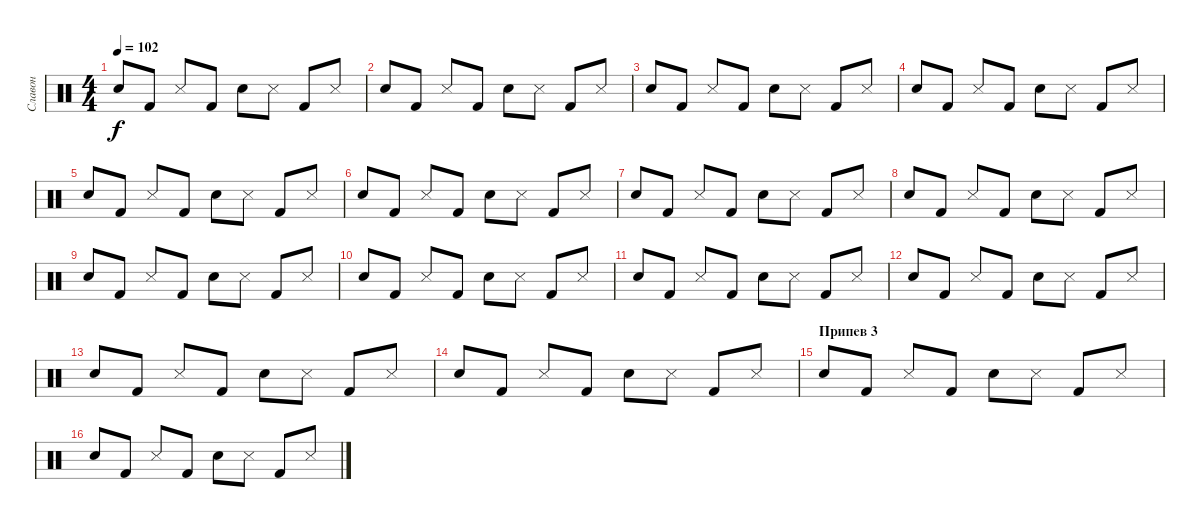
\track ("Славон" "Славон") {instrument percussion}
\staff {score}
\articulation defaults
\ts (4 4)
\tempo 102
\clef neutral
\ks c "Snare (hit) 2".8{dy f} "Kick (hit) 2".8 "Snare (side stick) 3".8 "Kick (hit) 2".8 "Snare (hit) 2".8 "Snare (side stick) 3".8 "Kick (hit) 2".8 "Snare (side stick) 3".8
|
"Snare (hit) 2".8 "Kick (hit) 2".8 "Snare (side stick) 3".8 "Kick (hit) 2".8 "Snare (hit) 2".8 "Snare (side stick) 3".8 "Kick (hit) 2".8 "Snare (side stick) 3".8 |
"Snare (hit) 2".8 "Kick (hit) 2".8 "Snare (side stick) 3".8 "Kick (hit) 2".8 "Snare (hit) 2".8 "Snare (side stick) 3".8 "Kick (hit) 2".8 "Snare (side stick) 3".8 |
"Snare (hit) 2".8 "Kick (hit) 2".8 "Snare (side stick) 3".8 "Kick (hit) 2".8 "Snare (hit) 2".8 "Snare (side stick) 3".8 "Kick (hit) 2".8 "Snare (side stick) 3".8 |
"Snare (hit) 2".8 "Kick (hit) 2".8 "Snare (side stick) 3".8 "Kick (hit) 2".8 "Snare (hit) 2".8 "Snare (side stick) 3".8 "Kick (hit) 2".8 "Snare (side stick) 3".8 |
"Snare (hit) 2".8 "Kick (hit) 2".8 "Snare (side stick) 3".8 "Kick (hit) 2".8 "Snare (hit) 2".8 "Snare (side stick) 3".8 "Kick (hit) 2".8 "Snare (side stick) 3".8 |
"Snare (hit) 2".8 "Kick (hit) 2".8 "Snare (side stick) 3".8 "Kick (hit) 2".8 "Snare (hit) 2".8 "Snare (side stick) 3".8 "Kick (hit) 2".8 "Snare (side stick) 3".8 |
"Snare (hit) 2".8 "Kick (hit) 2".8 "Snare (side stick) 3".8 "Kick (hit) 2".8 "Snare (hit) 2".8 "Snare (side stick) 3".8 "Kick (hit) 2".8 "Snare (side stick) 3".8 |
"Snare (hit) 2".8 "Kick (hit) 2".8 "Snare (side stick) 3".8 "Kick (hit) 2".8 "Snare (hit) 2".8 "Snare (side stick) 3".8 "Kick (hit) 2".8 "Snare (side stick) 3".8 |
"Snare (hit) 2".8 "Kick (hit) 2".8 "Snare (side stick) 3".8 "Kick (hit) 2".8 "Snare (hit) 2".8 "Snare (side stick) 3".8 "Kick (hit) 2".8 "Snare (side stick) 3".8 |
"Snare (hit) 2".8 "Kick (hit) 2".8 "Snare (side stick) 3".8 "Kick (hit) 2".8 "Snare (hit) 2".8 "Snare (side stick) 3".8 "Kick (hit) 2".8 "Snare (side stick) 3".8 |
"Snare (hit) 2".8 "Kick (hit) 2".8 "Snare (side stick) 3".8 "Kick (hit) 2".8 "Snare (hit) 2".8 "Snare (side stick) 3".8 "Kick (hit) 2".8 "Snare (side stick) 3".8 |
"Snare (hit) 2".8 "Kick (hit) 2".8 "Snare (side stick) 3".8 "Kick (hit) 2".8 "Snare (hit) 2".8 "Snare (side stick) 3".8 "Kick (hit) 2".8 "Snare (side stick) 3".8 |
"Snare (hit) 2".8 "Kick (hit) 2".8 "Snare (side stick) 3".8 "Kick (hit) 2".8 "Snare (hit) 2".8 "Snare (side stick) 3".8 "Kick (hit) 2".8 "Snare (side stick) 3".8 |
\section ("" "Припев 3")
"Snare (hit) 2".8 "Kick (hit) 2".8 "Snare (side stick) 3".8 "Kick (hit) 2".8 "Snare (hit) 2".8 "Snare (side stick) 3".8 "Kick (hit) 2".8 "Snare (side stick) 3".8 |
"Snare (hit) 2".8 "Kick (hit) 2".8 "Snare (side stick) 3".8 "Kick (hit) 2".8 "Snare (hit) 2".8 "Snare (side stick) 3".8 "Kick (hit) 2".8 "Snare (side stick) 3".8
